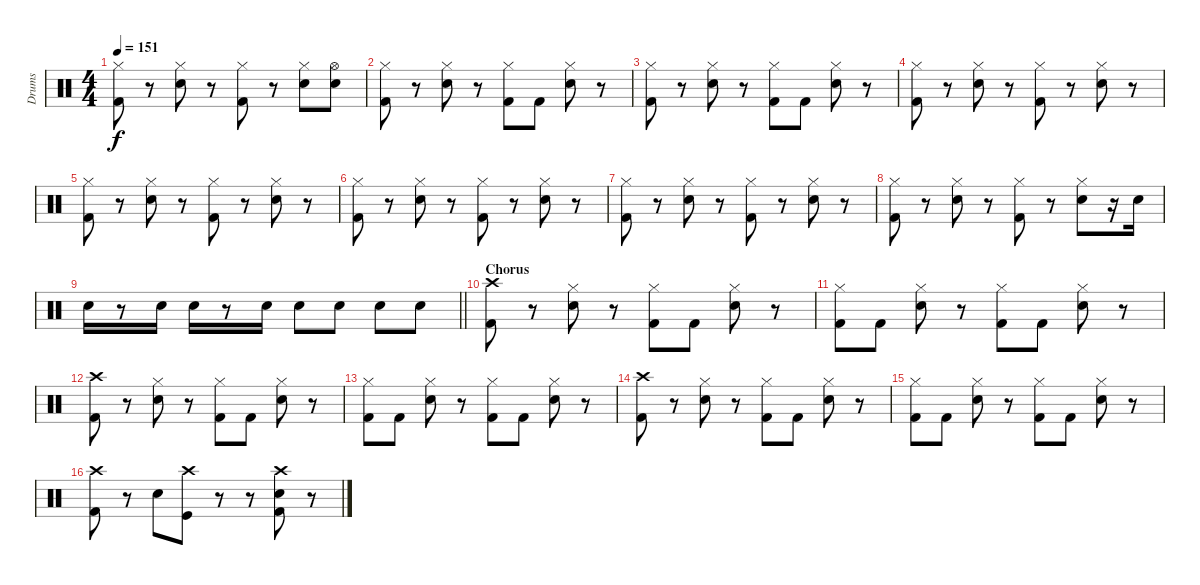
\track ("Drums" "Drums") {instrument percussion}
\staff {score}
\articulation defaults
\ts (4 4)
\tempo 151
\clef neutral
\ks c
("Hi-Hat (closed)" "Kick (hit) 2").8{dy f} r.8 ("Hi-Hat (closed)" "Snare (hit) 2").8 r.8 ("Hi-Hat (closed)" "Kick (hit) 2").8 r.8 ("Hi-Hat (closed)" "Snare (hit) 2").8 ("Hi-Hat (open)" "Snare (hit) 2").8 |
("Hi-Hat (closed)" "Kick (hit) 2").8 r.8 ("Hi-Hat (closed)" "Snare (hit) 2").8 r.8 ("Hi-Hat (closed)" "Kick (hit) 2").8 "Kick (hit) 2".8 ("Hi-Hat (closed)" "Snare (hit) 2").8 r.8 |
("Hi-Hat (closed)" "Kick (hit) 2").8 r.8 ("Hi-Hat (closed)" "Snare (hit) 2").8 r.8 ("Hi-Hat (closed)" "Kick (hit) 2").8 "Kick (hit) 2".8 ("Hi-Hat (closed)" "Snare (hit) 2").8 r.8 |
("Hi-Hat (closed)" "Kick (hit) 2").8 r.8 ("Hi-Hat (closed)" "Snare (hit) 2").8 r.8 ("Hi-Hat (closed)" "Kick (hit) 2").8 r.8 ("Hi-Hat (closed)" "Snare (hit) 2").8 r.8 |
("Hi-Hat (closed)" "Kick (hit) 2").8 r.8 ("Hi-Hat (closed)" "Snare (hit) 2").8 r.8 ("Hi-Hat (closed)" "Kick (hit) 2").8 r.8 ("Hi-Hat (closed)" "Snare (hit) 2").8 r.8 |
("Hi-Hat (closed)" "Kick (hit) 2").8 r.8 ("Hi-Hat (closed)" "Snare (hit) 2").8 r.8 ("Hi-Hat (closed)" "Kick (hit) 2").8 r.8 ("Hi-Hat (closed)" "Snare (hit) 2").8 r.8 |
("Hi-Hat (closed)" "Kick (hit) 2").8 r.8 ("Hi-Hat (closed)" "Snare (hit) 2").8 r.8 ("Hi-Hat (closed)" "Kick (hit) 2").8 r.8 ("Hi-Hat (closed)" "Snare (hit) 2").8 r.8 |
("Hi-Hat (closed)" "Kick (hit) 2").8 r.8 ("Hi-Hat (closed)" "Snare (hit) 2").8 r.8 ("Hi-Hat (closed)" "Kick (hit) 2").8 r.8 ("Hi-Hat (closed)" "Snare (hit) 2").8 r.16 "Snare (hit) 2".16 |
\barLineRight lightlight "Snare (hit) 2".16
r.8 "Snare (hit) 2".16 "Snare (hit) 2".16 r.8 "Snare (hit) 2".16 "Snare (hit) 2".8 "Snare (hit) 2".8 "Snare (hit) 2".8 "Snare (hit) 2".8 |
\section ("" "Chorus")
("Crash high (hit)" "Kick (hit) 2").8 r.8 ("Hi-Hat (closed)" "Snare (hit) 2").8 r.8 ("Hi-Hat (closed)" "Kick (hit) 2").8 "Kick (hit) 2".8 ("Hi-Hat (closed)" "Snare (hit) 2").8 r.8 |
("Hi-Hat (closed)" "Kick (hit) 2").8 "Kick (hit) 2".8 ("Hi-Hat (closed)" "Snare (hit) 2").8 r.8 ("Hi-Hat (closed)" "Kick (hit) 2").8 "Kick (hit) 2".8 ("Hi-Hat (closed)" "Snare (hit) 2").8 r.8 |
("Crash high (hit)" "Kick (hit) 2").8 r.8 ("Hi-Hat (closed)" "Snare (hit) 2").8 r.8 ("Hi-Hat (closed)" "Kick (hit) 2").8 "Kick (hit) 2".8 ("Hi-Hat (closed)" "Snare (hit) 2").8 r.8 |
("Hi-Hat (closed)" "Kick (hit) 2").8 "Kick (hit) 2".8 ("Hi-Hat (closed)" "Snare (hit) 2").8 r.8 ("Hi-Hat (closed)" "Kick (hit) 2").8 "Kick (hit) 2".8 ("Hi-Hat (closed)" "Snare (hit) 2").8 r.8 |
("Crash high (hit)" "Kick (hit) 2").8 r.8 ("Hi-Hat (closed)" "Snare (hit) 2").8 r.8 ("Hi-Hat (closed)" "Kick (hit) 2").8 "Kick (hit) 2".8 ("Hi-Hat (closed)" "Snare (hit) 2").8 r.8 |
("Hi-Hat (closed)" "Kick (hit) 2").8 "Kick (hit) 2".8 ("Hi-Hat (closed)" "Snare (hit) 2").8 r.8 ("Hi-Hat (closed)" "Kick (hit) 2").8 "Kick (hit) 2".8 ("Hi-Hat (closed)" "Snare (hit) 2").8 r.8 |
("Crash high (hit)" "Kick (hit) 2").8 r.8 "Snare (hit) 2".8 ("Crash high (hit)" "Kick (hit)").8 r.8 r.8 ("Crash high (hit)" "Snare (hit) 2" "Kick (hit) 2").8 r.8
